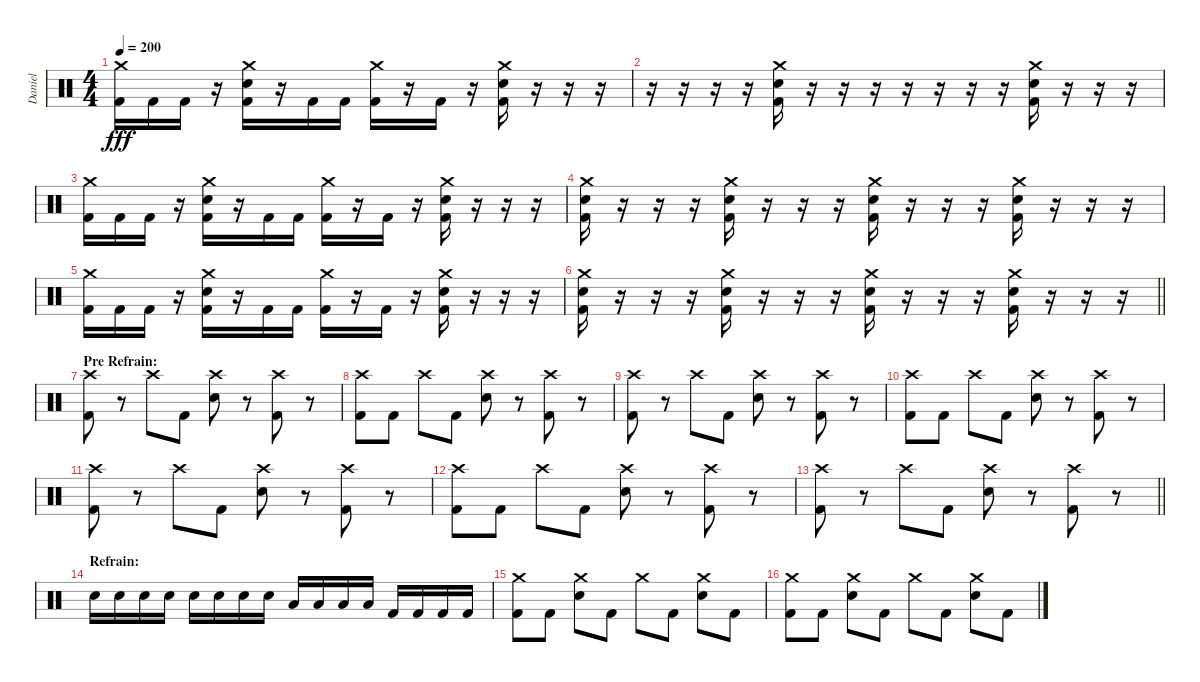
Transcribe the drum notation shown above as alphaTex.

\track ("Daniel" "Daniel") {instrument percussion}
\staff {score}
\articulation defaults
\ts (4 4)
\tempo 200
\clef neutral
\ks c
("Crash medium (hit)" "Kick (hit) 2").16{dy fff} "Kick (hit) 2".16 "Kick (hit) 2".16 r.16 ("Crash medium (hit)" "Electric Snare (hit)" "Kick (hit) 2").16 r.16 "Kick (hit) 2".16 "Kick (hit) 2".16 ("Crash medium (hit)" "Kick (hit) 2").16 r.16 "Kick (hit) 2".16 r.16 ("Crash medium (hit)" "Electric Snare (hit)" "Kick (hit) 2").16 r.16 r.16 r.16 |
r.16 r.16 r.16 r.16 ("Crash medium (hit)" "Electric Snare (hit)" "Kick (hit) 2").16 r.16 r.16 r.16 r.16 r.16 r.16 r.16 ("Crash medium (hit)" "Electric Snare (hit)" "Kick (hit) 2").16 r.16 r.16 r.16 |
("Crash medium (hit)" "Kick (hit) 2").16 "Kick (hit) 2".16 "Kick (hit) 2".16 r.16 ("Crash medium (hit)" "Electric Snare (hit)" "Kick (hit) 2").16 r.16 "Kick (hit) 2".16 "Kick (hit) 2".16 ("Crash medium (hit)" "Kick (hit) 2").16 r.16 "Kick (hit) 2".16 r.16 ("Crash medium (hit)" "Electric Snare (hit)" "Kick (hit) 2").16 r.16 r.16 r.16 |
("Crash medium (hit)" "Electric Snare (hit)" "Kick (hit) 2").16 r.16 r.16 r.16 ("Crash medium (hit)" "Electric Snare (hit)" "Kick (hit) 2").16 r.16 r.16 r.16 ("Crash medium (hit)" "Electric Snare (hit)" "Kick (hit) 2").16 r.16 r.16 r.16 ("Crash medium (hit)" "Electric Snare (hit)" "Kick (hit) 2").16 r.16 r.16 r.16 |
("Crash medium (hit)" "Kick (hit) 2").16 "Kick (hit) 2".16 "Kick (hit) 2".16 r.16 ("Crash medium (hit)" "Electric Snare (hit)" "Kick (hit) 2").16 r.16 "Kick (hit) 2".16 "Kick (hit) 2".16 ("Crash medium (hit)" "Kick (hit) 2").16 r.16 "Kick (hit) 2".16 r.16 ("Crash medium (hit)" "Electric Snare (hit)" "Kick (hit) 2").16 r.16 r.16 r.16 |
\barLineRight lightlight
("Crash medium (hit)" "Electric Snare (hit)" "Kick (hit) 2").16 r.16 r.16 r.16 ("Crash medium (hit)" "Electric Snare (hit)" "Kick (hit) 2").16 r.16 r.16 r.16 ("Crash medium (hit)" "Electric Snare (hit)" "Kick (hit) 2").16 r.16 r.16 r.16 ("Crash medium (hit)" "Electric Snare (hit)" "Kick (hit) 2").16 r.16 r.16 r.16 |
\section ("" "Pre Refrain:")
("Crash high (hit)" "Kick (hit) 2").8 r.8 "Crash high (hit)".8 "Kick (hit) 2".8 ("Crash high (hit)" "Electric Snare (hit)").8 r.8 ("Crash high (hit)" "Kick (hit) 2").8 r.8 |
("Crash high (hit)" "Kick (hit) 2").8 "Kick (hit) 2".8 "Crash high (hit)".8 "Kick (hit) 2".8 ("Crash high (hit)" "Electric Snare (hit)").8 r.8 ("Crash high (hit)" "Kick (hit) 2").8 r.8 |
("Crash high (hit)" "Kick (hit) 2").8 r.8 "Crash high (hit)".8 "Kick (hit) 2".8 ("Crash high (hit)" "Electric Snare (hit)").8 r.8 ("Crash high (hit)" "Kick (hit) 2").8 r.8 |
("Crash high (hit)" "Kick (hit) 2").8 "Kick (hit) 2".8 "Crash high (hit)".8 "Kick (hit) 2".8 ("Crash high (hit)" "Electric Snare (hit)").8 r.8 ("Crash high (hit)" "Kick (hit) 2").8 r.8 |
("Crash high (hit)" "Kick (hit) 2").8 r.8 "Crash high (hit)".8 "Kick (hit) 2".8 ("Crash high (hit)" "Electric Snare (hit)").8 r.8 ("Crash high (hit)" "Kick (hit) 2").8 r.8 |
("Crash high (hit)" "Kick (hit) 2").8 "Kick (hit) 2".8 "Crash high (hit)".8 "Kick (hit) 2".8 ("Crash high (hit)" "Electric Snare (hit)").8 r.8 ("Crash high (hit)" "Kick (hit) 2").8 r.8 |
\barLineRight lightlight
("Crash high (hit)" "Kick (hit) 2").8 r.8 "Crash high (hit)".8 "Kick (hit) 2".8 ("Crash high (hit)" "Electric Snare (hit)").8 r.8 ("Crash high (hit)" "Kick (hit) 2").8 r.8 |
\section ("" "Refrain:")
"Electric Snare (hit)".16 "Electric Snare (hit)".16 "Electric Snare (hit)".16 "Electric Snare (hit)".16 "Electric Snare (hit)".16 "Electric Snare (hit)".16 "Electric Snare (hit)".16 "Electric Snare (hit)".16 "Low Floor Tom (hit)".16 "Low Floor Tom (hit)".16 "Low Floor Tom (hit)".16 "Low Floor Tom (hit)".16 "Kick (hit) 2".16 "Kick (hit) 2".16 "Kick (hit) 2".16 "Kick (hit) 2".16 |
("Crash medium (hit)" "Kick (hit) 2").8 "Kick (hit) 2".8 ("Crash medium (hit)" "Electric Snare (hit)").8 "Kick (hit) 2".8 "Crash medium (hit)".8 "Kick (hit) 2".8 ("Crash medium (hit)" "Electric Snare (hit)").8 "Kick (hit) 2".8 |
("Crash medium (hit)" "Kick (hit) 2").8 "Kick (hit) 2".8 ("Crash medium (hit)" "Electric Snare (hit)").8 "Kick (hit) 2".8 "Crash medium (hit)".8 "Kick (hit) 2".8 ("Crash medium (hit)" "Electric Snare (hit)").8 "Kick (hit) 2".8
